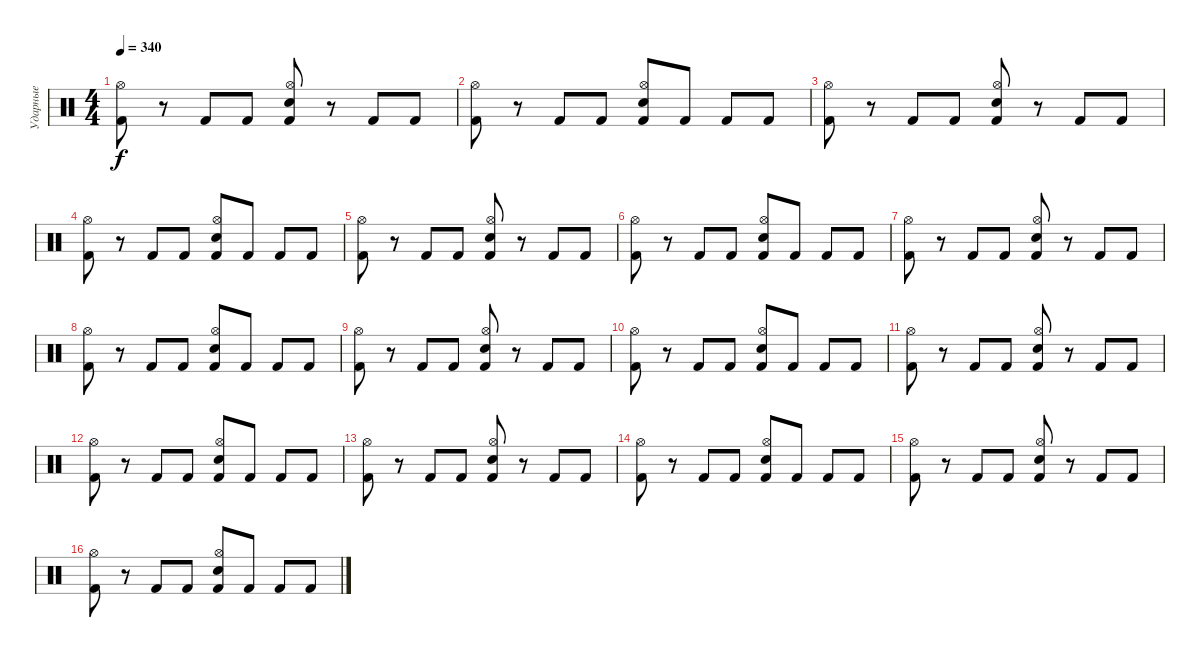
\track ("Ударные" "Ударные") {instrument percussion}
\staff {score}
\articulation defaults
\ts (4 4)
\tempo 340
\clef neutral
\ks c
("Kick (hit) 2" "Hi-Hat (open)").8{dy f} r.8 "Kick (hit) 2".8 "Kick (hit) 2".8 ("Kick (hit) 2" "Electric Snare (hit)" "Hi-Hat (open)").8 r.8 "Kick (hit) 2".8 "Kick (hit) 2".8 |
("Kick (hit) 2" "Hi-Hat (open)").8 r.8 "Kick (hit) 2".8 "Kick (hit) 2".8 ("Kick (hit) 2" "Electric Snare (hit)" "Hi-Hat (open)").8 "Kick (hit) 2".8 "Kick (hit) 2".8 "Kick (hit) 2".8 |
("Kick (hit) 2" "Hi-Hat (open)").8 r.8 "Kick (hit) 2".8 "Kick (hit) 2".8 ("Kick (hit) 2" "Electric Snare (hit)" "Hi-Hat (open)").8 r.8 "Kick (hit) 2".8 "Kick (hit) 2".8 |
("Kick (hit) 2" "Hi-Hat (open)").8 r.8 "Kick (hit) 2".8 "Kick (hit) 2".8 ("Kick (hit) 2" "Electric Snare (hit)" "Hi-Hat (open)").8 "Kick (hit) 2".8 "Kick (hit) 2".8 "Kick (hit) 2".8 |
("Kick (hit) 2" "Hi-Hat (open)").8 r.8 "Kick (hit) 2".8 "Kick (hit) 2".8 ("Kick (hit) 2" "Electric Snare (hit)" "Hi-Hat (open)").8 r.8 "Kick (hit) 2".8 "Kick (hit) 2".8 |
("Kick (hit) 2" "Hi-Hat (open)").8 r.8 "Kick (hit) 2".8 "Kick (hit) 2".8 ("Kick (hit) 2" "Electric Snare (hit)" "Hi-Hat (open)").8 "Kick (hit) 2".8 "Kick (hit) 2".8 "Kick (hit) 2".8 |
("Kick (hit) 2" "Hi-Hat (open)").8 r.8 "Kick (hit) 2".8 "Kick (hit) 2".8 ("Kick (hit) 2" "Electric Snare (hit)" "Hi-Hat (open)").8 r.8 "Kick (hit) 2".8 "Kick (hit) 2".8 |
("Kick (hit) 2" "Hi-Hat (open)").8 r.8 "Kick (hit) 2".8 "Kick (hit) 2".8 ("Kick (hit) 2" "Electric Snare (hit)" "Hi-Hat (open)").8 "Kick (hit) 2".8 "Kick (hit) 2".8 "Kick (hit) 2".8 |
("Kick (hit) 2" "Hi-Hat (open)").8 r.8 "Kick (hit) 2".8 "Kick (hit) 2".8 ("Kick (hit) 2" "Electric Snare (hit)" "Hi-Hat (open)").8 r.8 "Kick (hit) 2".8 "Kick (hit) 2".8 |
("Kick (hit) 2" "Hi-Hat (open)").8 r.8 "Kick (hit) 2".8 "Kick (hit) 2".8 ("Kick (hit) 2" "Electric Snare (hit)" "Hi-Hat (open)").8 "Kick (hit) 2".8 "Kick (hit) 2".8 "Kick (hit) 2".8 |
("Kick (hit) 2" "Hi-Hat (open)").8 r.8 "Kick (hit) 2".8 "Kick (hit) 2".8 ("Kick (hit) 2" "Electric Snare (hit)" "Hi-Hat (open)").8 r.8 "Kick (hit) 2".8 "Kick (hit) 2".8 |
("Kick (hit) 2" "Hi-Hat (open)").8 r.8 "Kick (hit) 2".8 "Kick (hit) 2".8 ("Kick (hit) 2" "Electric Snare (hit)" "Hi-Hat (open)").8 "Kick (hit) 2".8 "Kick (hit) 2".8 "Kick (hit) 2".8 |
("Kick (hit) 2" "Hi-Hat (open)").8 r.8 "Kick (hit) 2".8 "Kick (hit) 2".8 ("Kick (hit) 2" "Electric Snare (hit)" "Hi-Hat (open)").8 r.8 "Kick (hit) 2".8 "Kick (hit) 2".8 |
("Kick (hit) 2" "Hi-Hat (open)").8 r.8 "Kick (hit) 2".8 "Kick (hit) 2".8 ("Kick (hit) 2" "Electric Snare (hit)" "Hi-Hat (open)").8 "Kick (hit) 2".8 "Kick (hit) 2".8 "Kick (hit) 2".8 |
("Kick (hit) 2" "Hi-Hat (open)").8 r.8 "Kick (hit) 2".8 "Kick (hit) 2".8 ("Kick (hit) 2" "Electric Snare (hit)" "Hi-Hat (open)").8 r.8 "Kick (hit) 2".8 "Kick (hit) 2".8 |
("Kick (hit) 2" "Hi-Hat (open)").8 r.8 "Kick (hit) 2".8 "Kick (hit) 2".8 ("Kick (hit) 2" "Electric Snare (hit)" "Hi-Hat (open)").8 "Kick (hit) 2".8 "Kick (hit) 2".8 "Kick (hit) 2".8
